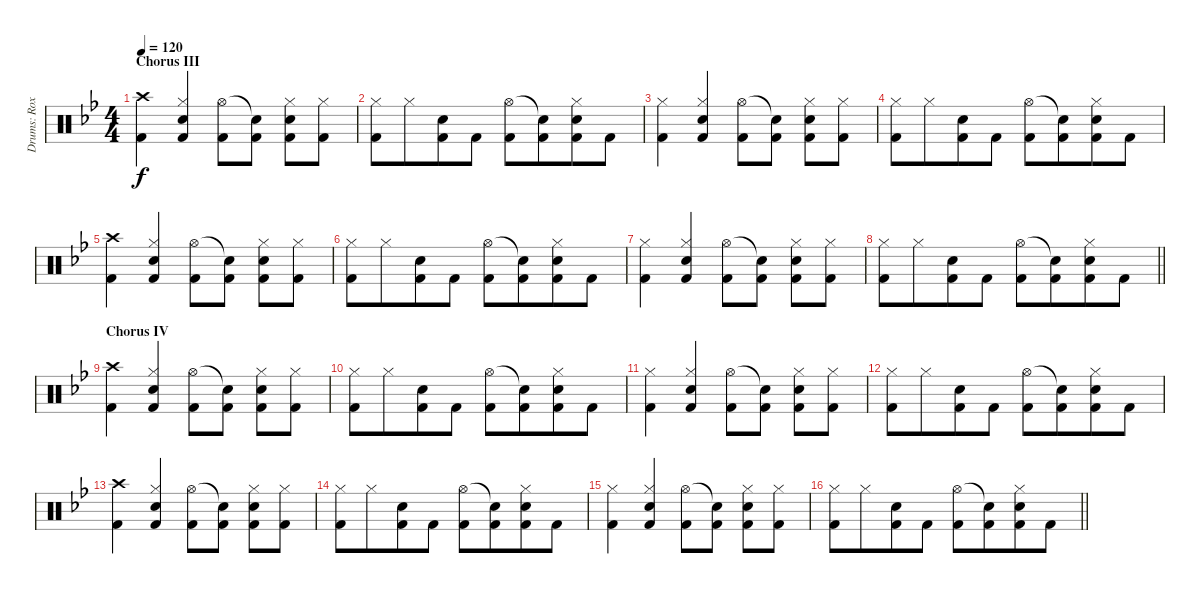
\track ("Drums: Roxy" "Drums: Rox") {instrument percussion}
\staff {score}
\articulation defaults
\ts (4 4)
\section ("" "Chorus III")
\tempo 120
\clef neutral
\ks bb
("Crash high (hit)" "Kick (hit) 2").4{dy f} ("Hi-Hat (closed)" "Snare (hit) 2" "Kick (hit) 2").4 ("Hi-Hat (open)" "Kick (hit) 2").8 ("Snare (hit)"{t} "Kick (hit) 2").8 ("Hi-Hat (closed)" "Snare (hit) 2" "Kick (hit) 2").8 ("Hi-Hat (closed)" "Kick (hit) 2").8 |
("Hi-Hat (closed)" "Kick (hit) 2").8 "Hi-Hat (closed)".8{beam merge} ("Snare (hit) 2" "Kick (hit) 2").8 "Kick (hit) 2".8 ("Hi-Hat (open)" "Kick (hit) 2").8 ("Snare (hit)"{t} "Kick (hit) 2").8{beam merge} ("Hi-Hat (closed)" "Snare (hit) 2" "Kick (hit) 2").8 "Kick (hit) 2".8 |
("Hi-Hat (closed)" "Kick (hit) 2").4 ("Hi-Hat (closed)" "Snare (hit) 2" "Kick (hit) 2").4 ("Hi-Hat (open)" "Kick (hit) 2").8 ("Snare (hit)"{t} "Kick (hit) 2").8 ("Hi-Hat (closed)" "Snare (hit) 2" "Kick (hit) 2").8 ("Hi-Hat (closed)" "Kick (hit) 2").8 |
("Hi-Hat (closed)" "Kick (hit) 2").8 "Hi-Hat (closed)".8{beam merge} ("Snare (hit) 2" "Kick (hit) 2").8 "Kick (hit) 2".8 ("Hi-Hat (open)" "Kick (hit) 2").8 ("Snare (hit)"{t} "Kick (hit) 2").8{beam merge} ("Hi-Hat (closed)" "Snare (hit) 2" "Kick (hit) 2").8 "Kick (hit) 2".8 |
("Crash high (hit)" "Kick (hit) 2").4 ("Hi-Hat (closed)" "Snare (hit) 2" "Kick (hit) 2").4 ("Hi-Hat (open)" "Kick (hit) 2").8 ("Snare (hit)"{t} "Kick (hit) 2").8 ("Hi-Hat (closed)" "Snare (hit) 2" "Kick (hit) 2").8 ("Hi-Hat (closed)" "Kick (hit) 2").8 |
("Hi-Hat (closed)" "Kick (hit) 2").8 "Hi-Hat (closed)".8{beam merge} ("Snare (hit) 2" "Kick (hit) 2").8 "Kick (hit) 2".8 ("Hi-Hat (open)" "Kick (hit) 2").8 ("Snare (hit)"{t} "Kick (hit) 2").8{beam merge} ("Hi-Hat (closed)" "Snare (hit) 2" "Kick (hit) 2").8 "Kick (hit) 2".8 |
("Hi-Hat (closed)" "Kick (hit) 2").4 ("Hi-Hat (closed)" "Snare (hit) 2" "Kick (hit) 2").4 ("Hi-Hat (open)" "Kick (hit) 2").8 ("Snare (hit)"{t} "Kick (hit) 2").8 ("Hi-Hat (closed)" "Snare (hit) 2" "Kick (hit) 2").8 ("Hi-Hat (closed)" "Kick (hit) 2").8 |
\barLineRight lightlight
("Hi-Hat (closed)" "Kick (hit) 2").8 "Hi-Hat (closed)".8{beam merge} ("Snare (hit) 2" "Kick (hit) 2").8 "Kick (hit) 2".8 ("Hi-Hat (open)" "Kick (hit) 2").8 ("Snare (hit)"{t} "Kick (hit) 2").8{beam merge} ("Hi-Hat (closed)" "Snare (hit) 2" "Kick (hit) 2").8 "Kick (hit) 2".8 |
\section ("" "Chorus IV")
("Crash high (hit)" "Kick (hit) 2").4 ("Hi-Hat (closed)" "Snare (hit) 2" "Kick (hit) 2").4 ("Hi-Hat (open)" "Kick (hit) 2").8 ("Snare (hit)"{t} "Kick (hit) 2").8 ("Hi-Hat (closed)" "Snare (hit) 2" "Kick (hit) 2").8 ("Hi-Hat (closed)" "Kick (hit) 2").8 |
("Hi-Hat (closed)" "Kick (hit) 2").8 "Hi-Hat (closed)".8{beam merge} ("Snare (hit) 2" "Kick (hit) 2").8 "Kick (hit) 2".8 ("Hi-Hat (open)" "Kick (hit) 2").8 ("Snare (hit)"{t} "Kick (hit) 2").8{beam merge} ("Hi-Hat (closed)" "Snare (hit) 2" "Kick (hit) 2").8 "Kick (hit) 2".8 |
("Hi-Hat (closed)" "Kick (hit) 2").4 ("Hi-Hat (closed)" "Snare (hit) 2" "Kick (hit) 2").4 ("Hi-Hat (open)" "Kick (hit) 2").8 ("Snare (hit)"{t} "Kick (hit) 2").8 ("Hi-Hat (closed)" "Snare (hit) 2" "Kick (hit) 2").8 ("Hi-Hat (closed)" "Kick (hit) 2").8 |
("Hi-Hat (closed)" "Kick (hit) 2").8 "Hi-Hat (closed)".8{beam merge} ("Snare (hit) 2" "Kick (hit) 2").8 "Kick (hit) 2".8 ("Hi-Hat (open)" "Kick (hit) 2").8 ("Snare (hit)"{t} "Kick (hit) 2").8{beam merge} ("Hi-Hat (closed)" "Snare (hit) 2" "Kick (hit) 2").8 "Kick (hit) 2".8 |
("Crash high (hit)" "Kick (hit) 2").4 ("Hi-Hat (closed)" "Snare (hit) 2" "Kick (hit) 2").4 ("Hi-Hat (open)" "Kick (hit) 2").8 ("Snare (hit)"{t} "Kick (hit) 2").8 ("Hi-Hat (closed)" "Snare (hit) 2" "Kick (hit) 2").8 ("Hi-Hat (closed)" "Kick (hit) 2").8 |
("Hi-Hat (closed)" "Kick (hit) 2").8 "Hi-Hat (closed)".8{beam merge} ("Snare (hit) 2" "Kick (hit) 2").8 "Kick (hit) 2".8 ("Hi-Hat (open)" "Kick (hit) 2").8 ("Snare (hit)"{t} "Kick (hit) 2").8{beam merge} ("Hi-Hat (closed)" "Snare (hit) 2" "Kick (hit) 2").8 "Kick (hit) 2".8 |
("Hi-Hat (closed)" "Kick (hit) 2").4 ("Hi-Hat (closed)" "Snare (hit) 2" "Kick (hit) 2").4 ("Hi-Hat (open)" "Kick (hit) 2").8 ("Snare (hit)"{t} "Kick (hit) 2").8 ("Hi-Hat (closed)" "Snare (hit) 2" "Kick (hit) 2").8 ("Hi-Hat (closed)" "Kick (hit) 2").8 |
\barLineRight lightlight
("Hi-Hat (closed)" "Kick (hit) 2").8 "Hi-Hat (closed)".8{beam merge} ("Snare (hit) 2" "Kick (hit) 2").8 "Kick (hit) 2".8 ("Hi-Hat (open)" "Kick (hit) 2").8 ("Snare (hit)"{t} "Kick (hit) 2").8{beam merge} ("Hi-Hat (closed)" "Snare (hit) 2" "Kick (hit) 2").8 "Kick (hit) 2".8
